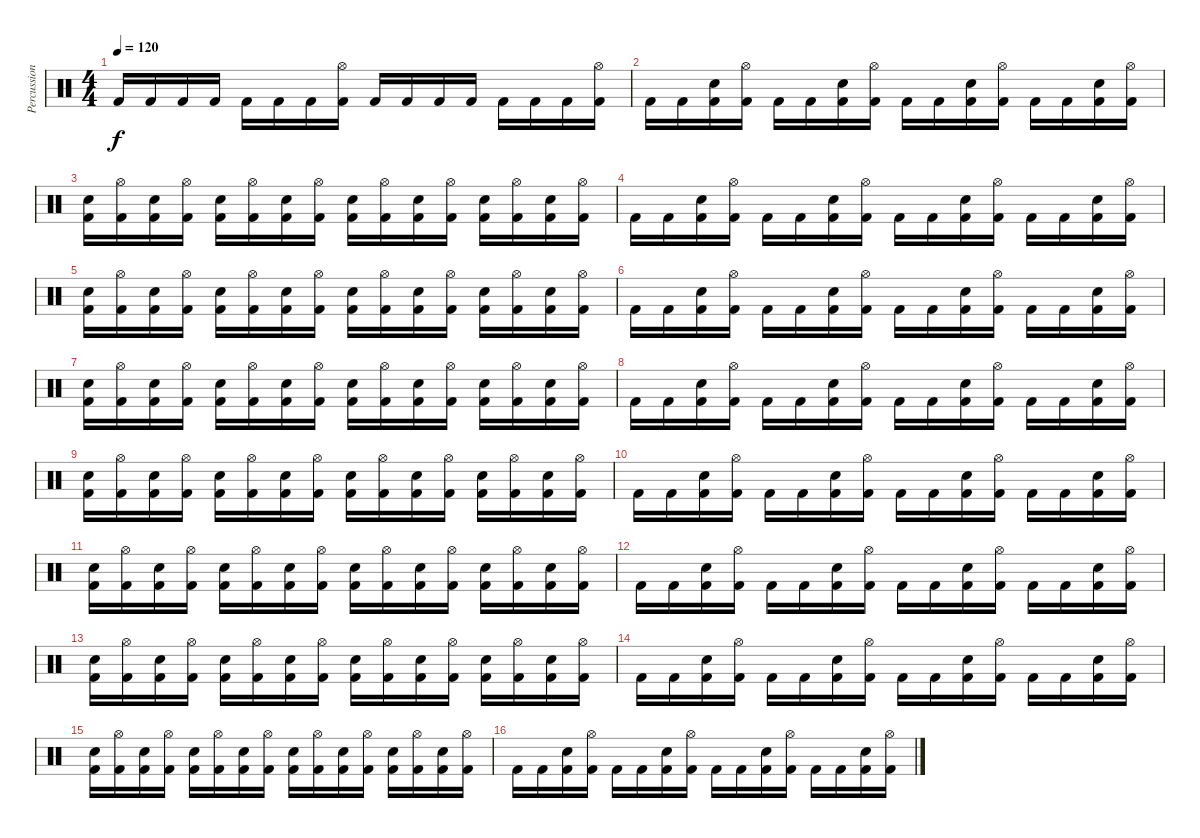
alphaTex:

\track ("Percussion" "Percussion") {instrument percussion}
\staff {score}
\articulation defaults
\ts (4 4)
\tempo 120
\clef neutral
\ks c "Kick (hit) 2".16{dy f} "Kick (hit) 2".16 "Kick (hit) 2".16 "Kick (hit) 2".16 "Kick (hit) 2".16 "Kick (hit) 2".16 "Kick (hit) 2".16
("Hi-Hat (open)" "Kick (hit) 2").16 "Kick (hit) 2".16 "Kick (hit) 2".16 "Kick (hit) 2".16 "Kick (hit) 2".16 "Kick (hit) 2".16 "Kick (hit) 2".16 "Kick (hit) 2".16 ("Hi-Hat (open)" "Kick (hit) 2").16 |
"Kick (hit) 2".16 "Kick (hit) 2".16 ("Electric Snare (hit)" "Kick (hit) 2").16 ("Hi-Hat (open)" "Kick (hit) 2").16 "Kick (hit) 2".16 "Kick (hit) 2".16 ("Electric Snare (hit)" "Kick (hit) 2").16 ("Hi-Hat (open)" "Kick (hit) 2").16 "Kick (hit) 2".16 "Kick (hit) 2".16 ("Electric Snare (hit)" "Kick (hit) 2").16 ("Hi-Hat (open)" "Kick (hit) 2").16 "Kick (hit) 2".16 "Kick (hit) 2".16 ("Electric Snare (hit)" "Kick (hit) 2").16 ("Hi-Hat (open)" "Kick (hit) 2").16 |
("Electric Snare (hit)" "Kick (hit) 2").16 ("Hi-Hat (open)" "Kick (hit) 2").16 ("Electric Snare (hit)" "Kick (hit) 2").16 ("Hi-Hat (open)" "Kick (hit) 2").16 ("Electric Snare (hit)" "Kick (hit) 2").16 ("Hi-Hat (open)" "Kick (hit) 2").16 ("Electric Snare (hit)" "Kick (hit) 2").16 ("Hi-Hat (open)" "Kick (hit) 2").16 ("Electric Snare (hit)" "Kick (hit) 2").16 ("Hi-Hat (open)" "Kick (hit) 2").16 ("Electric Snare (hit)" "Kick (hit) 2").16 ("Hi-Hat (open)" "Kick (hit) 2").16 ("Electric Snare (hit)" "Kick (hit) 2").16 ("Hi-Hat (open)" "Kick (hit) 2").16 ("Electric Snare (hit)" "Kick (hit) 2").16 ("Hi-Hat (open)" "Kick (hit) 2").16 |
"Kick (hit) 2".16 "Kick (hit) 2".16 ("Electric Snare (hit)" "Kick (hit) 2").16 ("Hi-Hat (open)" "Kick (hit) 2").16 "Kick (hit) 2".16 "Kick (hit) 2".16 ("Electric Snare (hit)" "Kick (hit) 2").16 ("Hi-Hat (open)" "Kick (hit) 2").16 "Kick (hit) 2".16 "Kick (hit) 2".16 ("Electric Snare (hit)" "Kick (hit) 2").16 ("Hi-Hat (open)" "Kick (hit) 2").16 "Kick (hit) 2".16 "Kick (hit) 2".16 ("Electric Snare (hit)" "Kick (hit) 2").16 ("Hi-Hat (open)" "Kick (hit) 2").16 |
("Electric Snare (hit)" "Kick (hit) 2").16 ("Hi-Hat (open)" "Kick (hit) 2").16 ("Electric Snare (hit)" "Kick (hit) 2").16 ("Hi-Hat (open)" "Kick (hit) 2").16 ("Electric Snare (hit)" "Kick (hit) 2").16 ("Hi-Hat (open)" "Kick (hit) 2").16 ("Electric Snare (hit)" "Kick (hit) 2").16 ("Hi-Hat (open)" "Kick (hit) 2").16 ("Electric Snare (hit)" "Kick (hit) 2").16 ("Hi-Hat (open)" "Kick (hit) 2").16 ("Electric Snare (hit)" "Kick (hit) 2").16 ("Hi-Hat (open)" "Kick (hit) 2").16 ("Electric Snare (hit)" "Kick (hit) 2").16 ("Hi-Hat (open)" "Kick (hit) 2").16 ("Electric Snare (hit)" "Kick (hit) 2").16 ("Hi-Hat (open)" "Kick (hit) 2").16 |
"Kick (hit) 2".16 "Kick (hit) 2".16 ("Electric Snare (hit)" "Kick (hit) 2").16 ("Hi-Hat (open)" "Kick (hit) 2").16 "Kick (hit) 2".16 "Kick (hit) 2".16 ("Electric Snare (hit)" "Kick (hit) 2").16 ("Hi-Hat (open)" "Kick (hit) 2").16 "Kick (hit) 2".16 "Kick (hit) 2".16 ("Electric Snare (hit)" "Kick (hit) 2").16 ("Hi-Hat (open)" "Kick (hit) 2").16 "Kick (hit) 2".16 "Kick (hit) 2".16 ("Electric Snare (hit)" "Kick (hit) 2").16 ("Hi-Hat (open)" "Kick (hit) 2").16 |
("Electric Snare (hit)" "Kick (hit) 2").16 ("Hi-Hat (open)" "Kick (hit) 2").16 ("Electric Snare (hit)" "Kick (hit) 2").16 ("Hi-Hat (open)" "Kick (hit) 2").16 ("Electric Snare (hit)" "Kick (hit) 2").16 ("Hi-Hat (open)" "Kick (hit) 2").16 ("Electric Snare (hit)" "Kick (hit) 2").16 ("Hi-Hat (open)" "Kick (hit) 2").16 ("Electric Snare (hit)" "Kick (hit) 2").16 ("Hi-Hat (open)" "Kick (hit) 2").16 ("Electric Snare (hit)" "Kick (hit) 2").16 ("Hi-Hat (open)" "Kick (hit) 2").16 ("Electric Snare (hit)" "Kick (hit) 2").16 ("Hi-Hat (open)" "Kick (hit) 2").16 ("Electric Snare (hit)" "Kick (hit) 2").16 ("Hi-Hat (open)" "Kick (hit) 2").16 |
"Kick (hit) 2".16 "Kick (hit) 2".16 ("Electric Snare (hit)" "Kick (hit) 2").16 ("Hi-Hat (open)" "Kick (hit) 2").16 "Kick (hit) 2".16 "Kick (hit) 2".16 ("Electric Snare (hit)" "Kick (hit) 2").16 ("Hi-Hat (open)" "Kick (hit) 2").16 "Kick (hit) 2".16 "Kick (hit) 2".16 ("Electric Snare (hit)" "Kick (hit) 2").16 ("Hi-Hat (open)" "Kick (hit) 2").16 "Kick (hit) 2".16 "Kick (hit) 2".16 ("Electric Snare (hit)" "Kick (hit) 2").16 ("Hi-Hat (open)" "Kick (hit) 2").16 |
("Electric Snare (hit)" "Kick (hit) 2").16 ("Hi-Hat (open)" "Kick (hit) 2").16 ("Electric Snare (hit)" "Kick (hit) 2").16 ("Hi-Hat (open)" "Kick (hit) 2").16 ("Electric Snare (hit)" "Kick (hit) 2").16 ("Hi-Hat (open)" "Kick (hit) 2").16 ("Electric Snare (hit)" "Kick (hit) 2").16 ("Hi-Hat (open)" "Kick (hit) 2").16 ("Electric Snare (hit)" "Kick (hit) 2").16 ("Hi-Hat (open)" "Kick (hit) 2").16 ("Electric Snare (hit)" "Kick (hit) 2").16 ("Hi-Hat (open)" "Kick (hit) 2").16 ("Electric Snare (hit)" "Kick (hit) 2").16 ("Hi-Hat (open)" "Kick (hit) 2").16 ("Electric Snare (hit)" "Kick (hit) 2").16 ("Hi-Hat (open)" "Kick (hit) 2").16 |
"Kick (hit) 2".16 "Kick (hit) 2".16 ("Electric Snare (hit)" "Kick (hit) 2").16 ("Hi-Hat (open)" "Kick (hit) 2").16 "Kick (hit) 2".16 "Kick (hit) 2".16 ("Electric Snare (hit)" "Kick (hit) 2").16 ("Hi-Hat (open)" "Kick (hit) 2").16 "Kick (hit) 2".16 "Kick (hit) 2".16 ("Electric Snare (hit)" "Kick (hit) 2").16 ("Hi-Hat (open)" "Kick (hit) 2").16 "Kick (hit) 2".16 "Kick (hit) 2".16 ("Electric Snare (hit)" "Kick (hit) 2").16 ("Hi-Hat (open)" "Kick (hit) 2").16 |
("Electric Snare (hit)" "Kick (hit) 2").16 ("Hi-Hat (open)" "Kick (hit) 2").16 ("Electric Snare (hit)" "Kick (hit) 2").16 ("Hi-Hat (open)" "Kick (hit) 2").16 ("Electric Snare (hit)" "Kick (hit) 2").16 ("Hi-Hat (open)" "Kick (hit) 2").16 ("Electric Snare (hit)" "Kick (hit) 2").16 ("Hi-Hat (open)" "Kick (hit) 2").16 ("Electric Snare (hit)" "Kick (hit) 2").16 ("Hi-Hat (open)" "Kick (hit) 2").16 ("Electric Snare (hit)" "Kick (hit) 2").16 ("Hi-Hat (open)" "Kick (hit) 2").16 ("Electric Snare (hit)" "Kick (hit) 2").16 ("Hi-Hat (open)" "Kick (hit) 2").16 ("Electric Snare (hit)" "Kick (hit) 2").16 ("Hi-Hat (open)" "Kick (hit) 2").16 |
"Kick (hit) 2".16 "Kick (hit) 2".16 ("Electric Snare (hit)" "Kick (hit) 2").16 ("Hi-Hat (open)" "Kick (hit) 2").16 "Kick (hit) 2".16 "Kick (hit) 2".16 ("Electric Snare (hit)" "Kick (hit) 2").16 ("Hi-Hat (open)" "Kick (hit) 2").16 "Kick (hit) 2".16 "Kick (hit) 2".16 ("Electric Snare (hit)" "Kick (hit) 2").16 ("Hi-Hat (open)" "Kick (hit) 2").16 "Kick (hit) 2".16 "Kick (hit) 2".16 ("Electric Snare (hit)" "Kick (hit) 2").16 ("Hi-Hat (open)" "Kick (hit) 2").16 |
("Electric Snare (hit)" "Kick (hit) 2").16 ("Hi-Hat (open)" "Kick (hit) 2").16 ("Electric Snare (hit)" "Kick (hit) 2").16 ("Hi-Hat (open)" "Kick (hit) 2").16 ("Electric Snare (hit)" "Kick (hit) 2").16 ("Hi-Hat (open)" "Kick (hit) 2").16 ("Electric Snare (hit)" "Kick (hit) 2").16 ("Hi-Hat (open)" "Kick (hit) 2").16 ("Electric Snare (hit)" "Kick (hit) 2").16 ("Hi-Hat (open)" "Kick (hit) 2").16 ("Electric Snare (hit)" "Kick (hit) 2").16 ("Hi-Hat (open)" "Kick (hit) 2").16 ("Electric Snare (hit)" "Kick (hit) 2").16 ("Hi-Hat (open)" "Kick (hit) 2").16 ("Electric Snare (hit)" "Kick (hit) 2").16 ("Hi-Hat (open)" "Kick (hit) 2").16 |
"Kick (hit) 2".16 "Kick (hit) 2".16 ("Electric Snare (hit)" "Kick (hit) 2").16 ("Hi-Hat (open)" "Kick (hit) 2").16 "Kick (hit) 2".16 "Kick (hit) 2".16 ("Electric Snare (hit)" "Kick (hit) 2").16 ("Hi-Hat (open)" "Kick (hit) 2").16 "Kick (hit) 2".16 "Kick (hit) 2".16 ("Electric Snare (hit)" "Kick (hit) 2").16 ("Hi-Hat (open)" "Kick (hit) 2").16 "Kick (hit) 2".16 "Kick (hit) 2".16 ("Electric Snare (hit)" "Kick (hit) 2").16 ("Hi-Hat (open)" "Kick (hit) 2").16 |
("Electric Snare (hit)" "Kick (hit) 2").16 ("Hi-Hat (open)" "Kick (hit) 2").16 ("Electric Snare (hit)" "Kick (hit) 2").16 ("Hi-Hat (open)" "Kick (hit) 2").16 ("Electric Snare (hit)" "Kick (hit) 2").16 ("Hi-Hat (open)" "Kick (hit) 2").16 ("Electric Snare (hit)" "Kick (hit) 2").16 ("Hi-Hat (open)" "Kick (hit) 2").16 ("Electric Snare (hit)" "Kick (hit) 2").16 ("Hi-Hat (open)" "Kick (hit) 2").16 ("Electric Snare (hit)" "Kick (hit) 2").16 ("Hi-Hat (open)" "Kick (hit) 2").16 ("Electric Snare (hit)" "Kick (hit) 2").16 ("Hi-Hat (open)" "Kick (hit) 2").16 ("Electric Snare (hit)" "Kick (hit) 2").16 ("Hi-Hat (open)" "Kick (hit) 2").16 |
"Kick (hit) 2".16 "Kick (hit) 2".16 ("Electric Snare (hit)" "Kick (hit) 2").16 ("Hi-Hat (open)" "Kick (hit) 2").16 "Kick (hit) 2".16 "Kick (hit) 2".16 ("Electric Snare (hit)" "Kick (hit) 2").16 ("Hi-Hat (open)" "Kick (hit) 2").16 "Kick (hit) 2".16 "Kick (hit) 2".16 ("Electric Snare (hit)" "Kick (hit) 2").16 ("Hi-Hat (open)" "Kick (hit) 2").16 "Kick (hit) 2".16 "Kick (hit) 2".16 ("Electric Snare (hit)" "Kick (hit) 2").16 ("Hi-Hat (open)" "Kick (hit) 2").16
